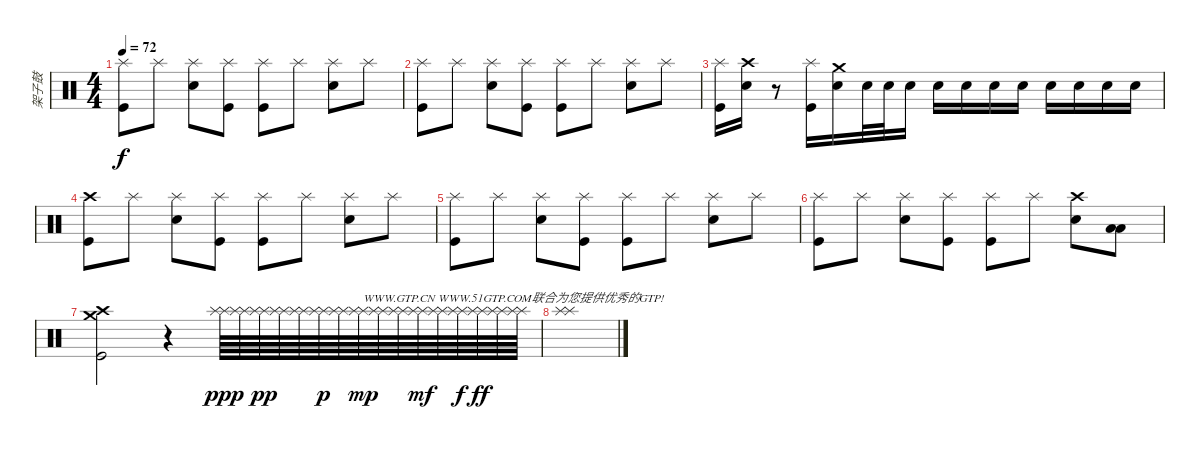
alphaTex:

\track ("架子鼓" "架子鼓") {instrument percussion}
\staff {score}
\articulation defaults
\ts (4 4)
\tempo 72
\clef neutral
\ks c
("Splash (hit)" "Kick (hit)").8{dy f} "Splash (hit)".8 ("Splash (hit)" "Electric Snare (hit)").8 ("Splash (hit)" "Kick (hit)").8 ("Splash (hit)" "Kick (hit)").8 "Splash (hit)".8 ("Splash (hit)" "Electric Snare (hit)").8 "Splash (hit)".8 |
("Splash (hit)" "Kick (hit)").8 "Splash (hit)".8 ("Splash (hit)" "Electric Snare (hit)").8 ("Splash (hit)" "Kick (hit)").8 ("Splash (hit)" "Kick (hit)").8 "Splash (hit)".8 ("Splash (hit)" "Electric Snare (hit)").8 "Splash (hit)".8 |
("Splash (hit)" "Kick (hit)").16 ("Crash high (hit)" "Electric Snare (hit)").16 r.8 ("Splash (hit)" "Kick (hit)").16 ("Crash medium (hit)" "Electric Snare (hit)").16 "Electric Snare (hit)".32 "Electric Snare (hit)".32 "Electric Snare (hit)".16 "Electric Snare (hit)".16 "Electric Snare (hit)".16 "Electric Snare (hit)".16 "Electric Snare (hit)".16 "Electric Snare (hit)".16 "Electric Snare (hit)".16 "Electric Snare (hit)".16 "Electric Snare (hit)".16 |
("Crash high (hit)" "Kick (hit)").8 "Splash (hit)".8 ("Splash (hit)" "Electric Snare (hit)").8 ("Splash (hit)" "Kick (hit)").8 ("Splash (hit)" "Kick (hit)").8 "Splash (hit)".8 ("Splash (hit)" "Electric Snare (hit)").8 "Splash (hit)".8 |
("Splash (hit)" "Kick (hit)").8 "Splash (hit)".8 ("Splash (hit)" "Electric Snare (hit)").8 ("Splash (hit)" "Kick (hit)").8 ("Splash (hit)" "Kick (hit)").8 "Splash (hit)".8 ("Splash (hit)" "Electric Snare (hit)").8 "Splash (hit)".8 |
("Splash (hit)" "Kick (hit)").8 "Splash (hit)".8 ("Splash (hit)" "Electric Snare (hit)").8 ("Splash (hit)" "Kick (hit)").8 ("Splash (hit)" "Kick (hit)").8 "Splash (hit)".8 ("Crash high (hit)" "Electric Snare (hit)").8 ("Low Tom (hit)" "Low Tom (hit)").8 |
("Crash medium (hit)" "Kick (hit)" "Crash high (hit)").2 r.4 ("Splash (hit)" "Splash (hit)").64{dy ppp volume 16} ("Splash (hit)" "Splash (hit)").64 ("Splash (hit)" "Splash (hit)").64{dy pp} ("Splash (hit)" "Splash (hit)").64 ("Splash (hit)" "Splash (hit)").64 ("Splash (hit)" "Splash (hit)").64{dy p} ("Splash (hit)" "Splash (hit)").64 ("Splash (hit)" "Splash (hit)").64{txt "WWW.GTP.CN WWW.51GTP.COM联合为您提供优秀的GTP!" dy mp} ("Splash (hit)" "Splash (hit)").64 ("Splash (hit)" "Splash (hit)").64 ("Splash (hit)" "Splash (hit)").64{dy mf} ("Splash (hit)" "Splash (hit)").64 ("Splash (hit)" "Splash (hit)").64{dy f} ("Splash (hit)" "Splash (hit)").64{dy ff} ("Splash (hit)" "Splash (hit)").64 ("Splash (hit)" "Splash (hit)").64 |
("Splash (hit)" "Splash (hit)").1
